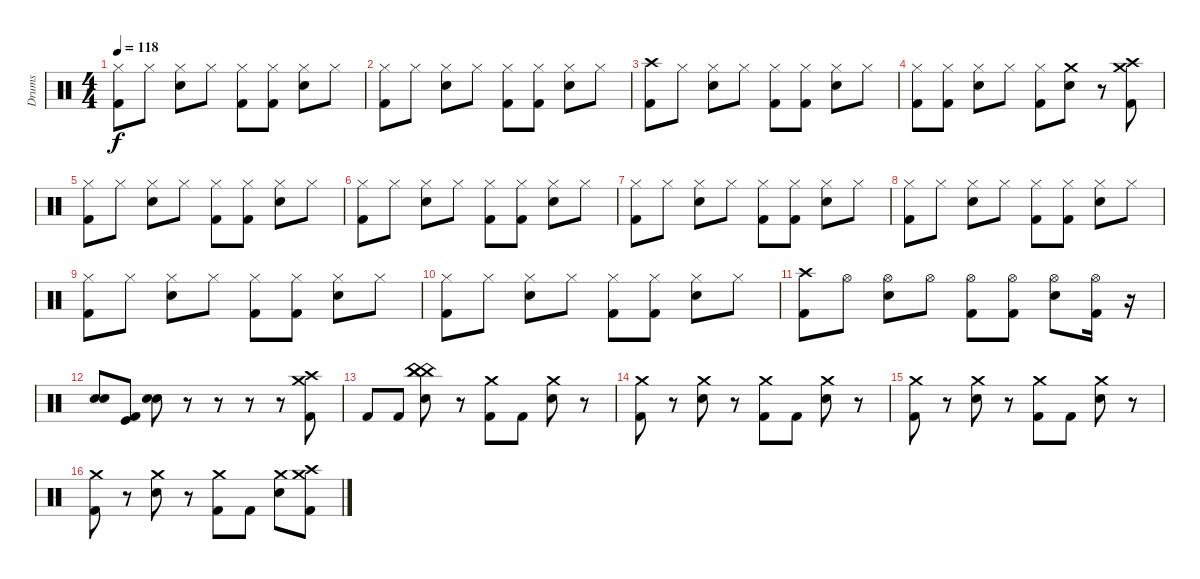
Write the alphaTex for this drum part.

\track ("Drums" "Drums") {instrument percussion}
\staff {score}
\articulation defaults
\ts (4 4)
\tempo 118
\clef neutral
\ks c
("Hi-Hat (closed)" "Kick (hit) 2").8{dy f} "Hi-Hat (closed)".8 ("Hi-Hat (closed)" "Electric Snare (hit)").8 "Hi-Hat (closed)".8 ("Hi-Hat (closed)" "Kick (hit) 2").8 ("Hi-Hat (closed)" "Kick (hit) 2").8 ("Hi-Hat (closed)" "Electric Snare (hit)").8 "Hi-Hat (closed)".8 |
("Hi-Hat (closed)" "Kick (hit) 2").8 "Hi-Hat (closed)".8 ("Hi-Hat (closed)" "Electric Snare (hit)").8 "Hi-Hat (closed)".8 ("Hi-Hat (closed)" "Kick (hit) 2").8 ("Hi-Hat (closed)" "Kick (hit) 2").8 ("Hi-Hat (closed)" "Electric Snare (hit)").8 "Hi-Hat (closed)".8 |
("Crash high (hit)" "Kick (hit) 2").8 "Hi-Hat (closed)".8 ("Hi-Hat (closed)" "Electric Snare (hit)").8 "Hi-Hat (closed)".8 ("Hi-Hat (closed)" "Kick (hit) 2").8 ("Hi-Hat (closed)" "Kick (hit) 2").8 ("Hi-Hat (closed)" "Electric Snare (hit)").8 "Hi-Hat (closed)".8 |
("Hi-Hat (closed)" "Kick (hit) 2").8 ("Hi-Hat (closed)" "Kick (hit) 2").8 ("Hi-Hat (closed)" "Electric Snare (hit)").8 "Hi-Hat (closed)".8 ("Hi-Hat (closed)" "Kick (hit) 2").8 ("Crash medium (hit)" "Electric Snare (hit)").8 r.8 ("Crash medium (hit)" "Crash high (hit)" "Kick (hit) 2").8 |
("Hi-Hat (closed)" "Kick (hit) 2").8 "Hi-Hat (closed)".8 ("Hi-Hat (closed)" "Electric Snare (hit)").8 "Hi-Hat (closed)".8 ("Hi-Hat (closed)" "Kick (hit) 2").8 ("Hi-Hat (closed)" "Kick (hit) 2").8 ("Hi-Hat (closed)" "Electric Snare (hit)").8 "Hi-Hat (closed)".8 |
("Hi-Hat (closed)" "Kick (hit) 2").8 "Hi-Hat (closed)".8 ("Hi-Hat (closed)" "Electric Snare (hit)").8 "Hi-Hat (closed)".8 ("Hi-Hat (closed)" "Kick (hit) 2").8 ("Hi-Hat (closed)" "Kick (hit) 2").8 ("Hi-Hat (closed)" "Electric Snare (hit)").8 "Hi-Hat (closed)".8 |
("Hi-Hat (closed)" "Kick (hit) 2").8 "Hi-Hat (closed)".8 ("Hi-Hat (closed)" "Electric Snare (hit)").8 "Hi-Hat (closed)".8 ("Hi-Hat (closed)" "Kick (hit) 2").8 ("Hi-Hat (closed)" "Kick (hit) 2").8 ("Hi-Hat (closed)" "Electric Snare (hit)").8 "Hi-Hat (closed)".8 |
("Hi-Hat (closed)" "Kick (hit) 2").8 "Hi-Hat (closed)".8 ("Hi-Hat (closed)" "Electric Snare (hit)").8 "Hi-Hat (closed)".8 ("Hi-Hat (closed)" "Kick (hit) 2").8 ("Hi-Hat (closed)" "Kick (hit) 2").8 ("Hi-Hat (closed)" "Electric Snare (hit)").8 "Hi-Hat (closed)".8 |
("Hi-Hat (closed)" "Kick (hit) 2").8 "Hi-Hat (closed)".8 ("Hi-Hat (closed)" "Electric Snare (hit)").8 "Hi-Hat (closed)".8 ("Hi-Hat (closed)" "Kick (hit) 2").8 ("Hi-Hat (closed)" "Kick (hit) 2").8 ("Hi-Hat (closed)" "Electric Snare (hit)").8 "Hi-Hat (closed)".8 |
("Hi-Hat (closed)" "Kick (hit) 2").8 "Hi-Hat (closed)".8 ("Hi-Hat (closed)" "Electric Snare (hit)").8 "Hi-Hat (closed)".8 ("Hi-Hat (closed)" "Kick (hit) 2").8 ("Hi-Hat (closed)" "Kick (hit) 2").8 ("Hi-Hat (closed)" "Electric Snare (hit)").8 "Hi-Hat (closed)".8 |
("Crash high (hit)" "Kick (hit) 2").8 "Hi-Hat (open)".8 ("Hi-Hat (open)" "Electric Snare (hit)").8 "Hi-Hat (open)".8 ("Hi-Hat (open)" "Kick (hit) 2").8 ("Hi-Hat (open)" "Kick (hit) 2").8 ("Hi-Hat (open)" "Electric Snare (hit)").8 ("Hi-Hat (open)" "Kick (hit) 2").16 r.16 |
("Electric Snare (hit)" "Electric Snare (hit)").8 ("Kick (hit)" "Kick (hit) 2").8 ("Electric Snare (hit)" "Electric Snare (hit)").8 r.8 r.8 r.8 r.8 ("Crash medium (hit)" "Crash high (hit)" "Kick (hit) 2").8 |
"Kick (hit) 2".8 "Kick (hit) 2".8 ("China (hit)" "China (hit)" "China (hit)" "Electric Snare (hit)").8 r.8 ("Crash medium (hit)" "Kick (hit) 2").8 "Kick (hit) 2".8 ("Crash medium (hit)" "Electric Snare (hit)").8 r.8 |
("Crash medium (hit)" "Kick (hit) 2").8 r.8 ("Crash medium (hit)" "Electric Snare (hit)").8 r.8 ("Crash medium (hit)" "Kick (hit) 2").8 "Kick (hit) 2".8 ("Crash medium (hit)" "Electric Snare (hit)").8 r.8 |
("Crash medium (hit)" "Kick (hit) 2").8 r.8 ("Crash medium (hit)" "Electric Snare (hit)").8 r.8 ("Crash medium (hit)" "Kick (hit) 2").8 "Kick (hit) 2".8 ("Crash medium (hit)" "Electric Snare (hit)").8 r.8 |
("Crash medium (hit)" "Kick (hit) 2").8 r.8 ("Crash medium (hit)" "Electric Snare (hit)").8 r.8 ("Crash medium (hit)" "Kick (hit) 2").8 "Kick (hit) 2".8 ("Crash medium (hit)" "Electric Snare (hit)").8 ("Crash medium (hit)" "Crash high (hit)" "Kick (hit) 2").8
